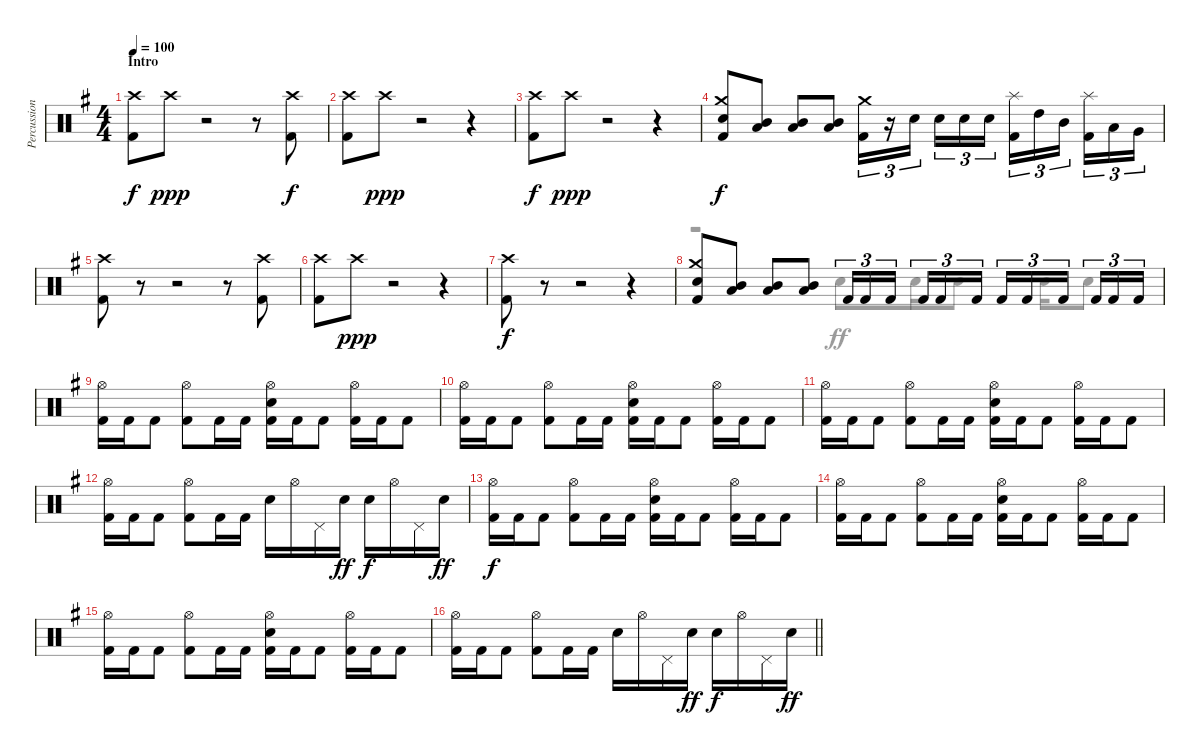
\track ("Percussion" "Percussion") {instrument percussion}
\staff {score}
\articulation defaults
\voice
\ts (4 4)
\section ("" "Intro")
\tempo 100
\clef neutral
\ks eminor
("Crash high (hit)" "Kick (hit) 2").8{dy f} "Crash high (hit)".8{dy ppp} r.2 r.8 ("Crash high (hit)" "Kick (hit) 2").8{dy f} |
("Crash high (hit)" "Kick (hit) 2").8 "Crash high (hit)".8{dy ppp} r.2 r.4 |
("Crash high (hit)" "Kick (hit) 2").8{dy f} "Crash high (hit)".8{dy ppp} r.2 r.4 |
("Crash medium (hit)" "Snare (hit) 2" "Kick (hit) 2").8{dy f} ("Mid Tom (hit)" "Low Tom (hit)").8 ("Mid Tom (hit)" "Low Tom (hit)").8 ("Mid Tom (hit)" "Low Tom (hit)").8 ("Crash medium (hit)" "Kick (hit) 2").16{tu (3 2)} r.16{tu (3 2)} "Snare (hit) 2".16{tu (3 2) beam splitsecondary} "Snare (hit) 2".16{tu (3 2)} "Snare (hit) 2".16{tu (3 2)} "Snare (hit) 2".16{tu (3 2)} ("Splash (hit)" "Kick (hit) 2").16{tu (3 2)} "High Tom (hit)".16{tu (3 2)} "Mid Tom (hit)".16{tu (3 2) beam splitsecondary} ("Splash (hit)" "Kick (hit) 2").16{tu (3 2)} "Low Tom (hit)".16{tu (3 2)} "Very Low Tom (hit)".16{tu (3 2)} |
("Crash high (hit)" "Kick (hit) 2").8 r.8 r.2 r.8 ("Crash high (hit)" "Kick (hit) 2").8 |
("Crash high (hit)" "Kick (hit) 2").8 "Crash high (hit)".8{dy ppp} r.2 r.4 |
("Crash high (hit)" "Kick (hit) 2").8{dy f} r.8 r.2 r.4 |
("Crash medium (hit)" "Snare (hit) 2" "Kick (hit) 2").8 ("Mid Tom (hit)" "Low Tom (hit)").8 ("Mid Tom (hit)" "Low Tom (hit)").8 ("Mid Tom (hit)" "Low Tom (hit)").8 "Kick (hit) 2".16{tu (3 2)} "Kick (hit) 2".16{tu (3 2)} "Kick (hit) 2".16{tu (3 2) beam splitsecondary} "Kick (hit) 2".16{tu (3 2)} "Kick (hit) 2".16{tu (3 2)} "Kick (hit) 2".16{tu (3 2)} "Kick (hit) 2".16{tu (3 2)} "Kick (hit) 2".16{tu (3 2)} "Kick (hit) 2".16{tu (3 2) beam splitsecondary} "Kick (hit) 2".16{tu (3 2)} "Kick (hit) 2".16{tu (3 2)} "Kick (hit) 2".16{tu (3 2)} |
("Hi-Hat (open)" "Kick (hit) 2").16 "Kick (hit) 2".16 "Kick (hit) 2".8 ("Hi-Hat (open)" "Kick (hit) 2").8 "Kick (hit) 2".16 "Kick (hit) 2".16 ("Hi-Hat (open)" "Snare (hit) 2" "Kick (hit) 2").16 "Kick (hit) 2".16 "Kick (hit) 2".8 ("Hi-Hat (open)" "Kick (hit) 2").16 "Kick (hit) 2".16 "Kick (hit) 2".8 |
("Hi-Hat (open)" "Kick (hit) 2").16 "Kick (hit) 2".16 "Kick (hit) 2".8 ("Hi-Hat (open)" "Kick (hit) 2").8 "Kick (hit) 2".16 "Kick (hit) 2".16 ("Hi-Hat (open)" "Snare (hit) 2" "Kick (hit) 2").16 "Kick (hit) 2".16 "Kick (hit) 2".8 ("Hi-Hat (open)" "Kick (hit) 2").16 "Kick (hit) 2".16 "Kick (hit) 2".8 |
("Hi-Hat (open)" "Kick (hit) 2").16 "Kick (hit) 2".16 "Kick (hit) 2".8 ("Hi-Hat (open)" "Kick (hit) 2").8 "Kick (hit) 2".16 "Kick (hit) 2".16 ("Hi-Hat (open)" "Snare (hit) 2" "Kick (hit) 2").16 "Kick (hit) 2".16 "Kick (hit) 2".8 ("Hi-Hat (open)" "Kick (hit) 2").16 "Kick (hit) 2".16 "Kick (hit) 2".8 |
("Hi-Hat (open)" "Kick (hit) 2").16 "Kick (hit) 2".16 "Kick (hit) 2".8 ("Hi-Hat (open)" "Kick (hit) 2").8 "Kick (hit) 2".16 "Kick (hit) 2".16 "Snare (hit) 2".16 "Hi-Hat (open)".16 "Pedal Hi-Hat (hit)".16 "Snare (hit) 2".16{dy ff} "Snare (hit) 2".16{dy f} "Hi-Hat (open)".16 "Pedal Hi-Hat (hit)".16 "Snare (hit) 2".16{dy ff} |
("Hi-Hat (open)" "Kick (hit) 2").16{dy f} "Kick (hit) 2".16 "Kick (hit) 2".8 ("Hi-Hat (open)" "Kick (hit) 2").8 "Kick (hit) 2".16 "Kick (hit) 2".16 ("Hi-Hat (open)" "Snare (hit) 2" "Kick (hit) 2").16 "Kick (hit) 2".16 "Kick (hit) 2".8 ("Hi-Hat (open)" "Kick (hit) 2").16 "Kick (hit) 2".16 "Kick (hit) 2".8 |
("Hi-Hat (open)" "Kick (hit) 2").16 "Kick (hit) 2".16 "Kick (hit) 2".8 ("Hi-Hat (open)" "Kick (hit) 2").8 "Kick (hit) 2".16 "Kick (hit) 2".16 ("Hi-Hat (open)" "Snare (hit) 2" "Kick (hit) 2").16 "Kick (hit) 2".16 "Kick (hit) 2".8 ("Hi-Hat (open)" "Kick (hit) 2").16 "Kick (hit) 2".16 "Kick (hit) 2".8 |
("Hi-Hat (open)" "Kick (hit) 2").16 "Kick (hit) 2".16 "Kick (hit) 2".8 ("Hi-Hat (open)" "Kick (hit) 2").8 "Kick (hit) 2".16 "Kick (hit) 2".16 ("Hi-Hat (open)" "Snare (hit) 2" "Kick (hit) 2").16 "Kick (hit) 2".16 "Kick (hit) 2".8 ("Hi-Hat (open)" "Kick (hit) 2").16 "Kick (hit) 2".16 "Kick (hit) 2".8 |
\barLineRight lightlight
("Hi-Hat (open)" "Kick (hit) 2").16 "Kick (hit) 2".16 "Kick (hit) 2".8 ("Hi-Hat (open)" "Kick (hit) 2").8 "Kick (hit) 2".16 "Kick (hit) 2".16 "Snare (hit) 2".16 "Hi-Hat (open)".16 "Pedal Hi-Hat (hit)".16 "Snare (hit) 2".16{dy ff} "Snare (hit) 2".16{dy f} "Hi-Hat (open)".16 "Pedal Hi-Hat (hit)".16 "Snare (hit) 2".16{dy ff}
\voice
\clef neutral
\ottava regular
\simile none
\ks eminor
|
|
|
|
|
|
|
r.2 "Snare (hit) 2".8 "Snare (hit) 2".16 "Snare (hit) 2".8 "Snare (hit) 2".16 "Snare (hit) 2".8 |
|
|
|
|
|
|
|
\barLineRight lightlight
